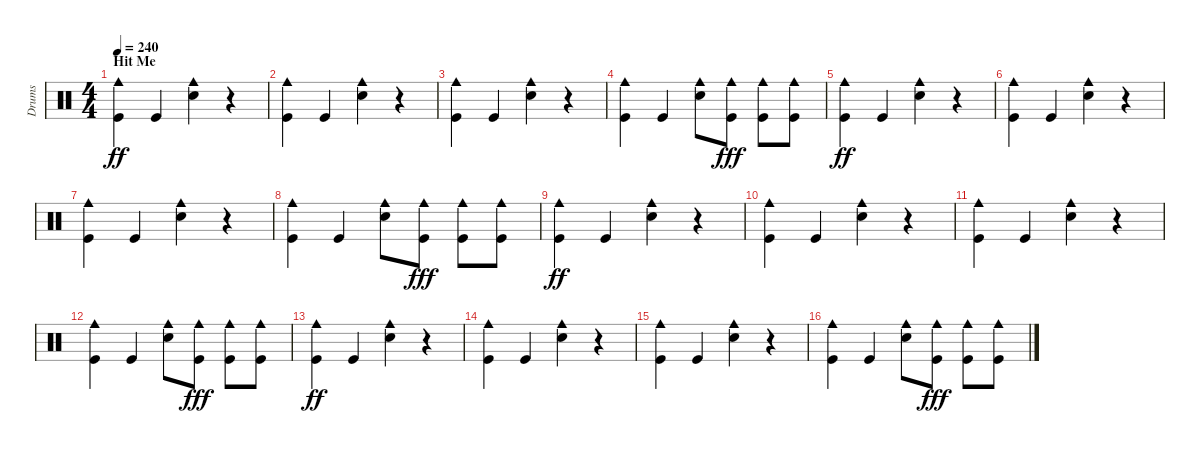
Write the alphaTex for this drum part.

\track ("Drums" "Drums") {instrument percussion}
\staff {score}
\articulation defaults
\ts (4 4)
\section ("" "Hit Me")
\tempo 240
\clef neutral
\ks c
("Kick (hit)" "Cowbell medium (hit)").4{dy ff} "Kick (hit)".4 ("Snare (hit) 2" "Cowbell medium (hit)").4 r.4 |
("Kick (hit)" "Cowbell medium (hit)").4 "Kick (hit)".4 ("Snare (hit) 2" "Cowbell medium (hit)").4 r.4 |
("Kick (hit)" "Cowbell medium (hit)").4 "Kick (hit)".4 ("Snare (hit) 2" "Cowbell medium (hit)").4 r.4 |
("Kick (hit)" "Cowbell medium (hit)").4 "Kick (hit)".4 ("Snare (hit) 2" "Cowbell medium (hit)").8 ("Kick (hit)" "Cowbell medium (hit)").8{dy fff} ("Kick (hit)" "Cowbell medium (hit)").8 ("Kick (hit)" "Cowbell medium (hit)").8 |
("Kick (hit)" "Cowbell medium (hit)").4{dy ff} "Kick (hit)".4 ("Snare (hit) 2" "Cowbell medium (hit)").4 r.4 |
("Kick (hit)" "Cowbell medium (hit)").4 "Kick (hit)".4 ("Snare (hit) 2" "Cowbell medium (hit)").4 r.4 |
("Kick (hit)" "Cowbell medium (hit)").4 "Kick (hit)".4 ("Snare (hit) 2" "Cowbell medium (hit)").4 r.4 |
("Kick (hit)" "Cowbell medium (hit)").4 "Kick (hit)".4 ("Snare (hit) 2" "Cowbell medium (hit)").8 ("Kick (hit)" "Cowbell medium (hit)").8{dy fff} ("Kick (hit)" "Cowbell medium (hit)").8 ("Kick (hit)" "Cowbell medium (hit)").8 |
("Kick (hit)" "Cowbell medium (hit)").4{dy ff} "Kick (hit)".4 ("Snare (hit) 2" "Cowbell medium (hit)").4 r.4 |
("Kick (hit)" "Cowbell medium (hit)").4 "Kick (hit)".4 ("Snare (hit) 2" "Cowbell medium (hit)").4 r.4 |
("Kick (hit)" "Cowbell medium (hit)").4 "Kick (hit)".4 ("Snare (hit) 2" "Cowbell medium (hit)").4 r.4 |
("Kick (hit)" "Cowbell medium (hit)").4 "Kick (hit)".4 ("Snare (hit) 2" "Cowbell medium (hit)").8 ("Kick (hit)" "Cowbell medium (hit)").8{dy fff} ("Kick (hit)" "Cowbell medium (hit)").8 ("Kick (hit)" "Cowbell medium (hit)").8 |
("Kick (hit)" "Cowbell medium (hit)").4{dy ff} "Kick (hit)".4 ("Snare (hit) 2" "Cowbell medium (hit)").4 r.4 |
("Kick (hit)" "Cowbell medium (hit)").4 "Kick (hit)".4 ("Snare (hit) 2" "Cowbell medium (hit)").4 r.4 |
("Kick (hit)" "Cowbell medium (hit)").4 "Kick (hit)".4 ("Snare (hit) 2" "Cowbell medium (hit)").4 r.4 |
("Kick (hit)" "Cowbell medium (hit)").4 "Kick (hit)".4 ("Snare (hit) 2" "Cowbell medium (hit)").8 ("Kick (hit)" "Cowbell medium (hit)").8{dy fff} ("Kick (hit)" "Cowbell medium (hit)").8 ("Kick (hit)" "Cowbell medium (hit)").8
